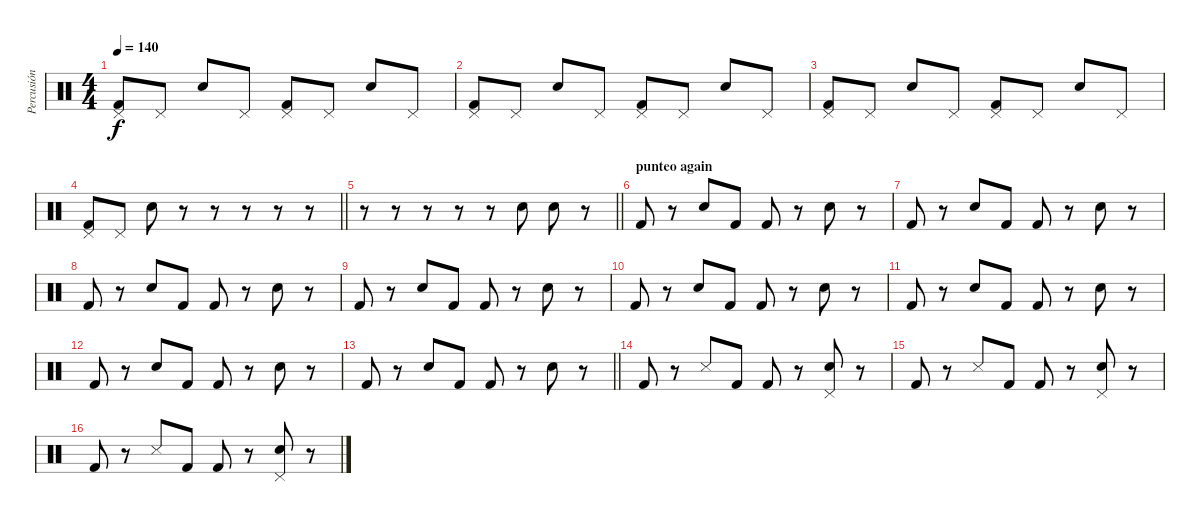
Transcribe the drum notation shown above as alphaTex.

\track ("Percusión" "Percusión") {instrument percussion}
\staff {score}
\articulation defaults
\ts (4 4)
\tempo 140
\clef neutral
\ks c
("Pedal Hi-Hat (hit)" "Kick (hit) 2").8{dy f} "Pedal Hi-Hat (hit)".8 "Snare (hit) 2".8 "Pedal Hi-Hat (hit)".8 ("Pedal Hi-Hat (hit)" "Kick (hit) 2").8 "Pedal Hi-Hat (hit)".8 "Snare (hit) 2".8 "Pedal Hi-Hat (hit)".8 |
("Pedal Hi-Hat (hit)" "Kick (hit) 2").8 "Pedal Hi-Hat (hit)".8 "Snare (hit) 2".8 "Pedal Hi-Hat (hit)".8 ("Pedal Hi-Hat (hit)" "Kick (hit) 2").8 "Pedal Hi-Hat (hit)".8 "Snare (hit) 2".8 "Pedal Hi-Hat (hit)".8 |
("Pedal Hi-Hat (hit)" "Kick (hit) 2").8 "Pedal Hi-Hat (hit)".8 "Snare (hit) 2".8 "Pedal Hi-Hat (hit)".8 ("Pedal Hi-Hat (hit)" "Kick (hit) 2").8 "Pedal Hi-Hat (hit)".8 "Snare (hit) 2".8 "Pedal Hi-Hat (hit)".8 |
\barLineRight lightlight
("Pedal Hi-Hat (hit)" "Kick (hit) 2").8 "Pedal Hi-Hat (hit)".8 "Snare (hit) 2".8 r.8 r.8 r.8 r.8 r.8 |
\barLineRight lightlight
r.8 r.8 r.8 r.8 r.8 "Snare (hit) 2".8 "Snare (hit) 2".8 r.8 |
\section ("" "punteo again")
"Kick (hit) 2".8 r.8 "Snare (hit) 2".8 "Kick (hit) 2".8 "Kick (hit) 2".8 r.8 "Snare (hit) 2".8 r.8 |
"Kick (hit) 2".8 r.8 "Snare (hit) 2".8 "Kick (hit) 2".8 "Kick (hit) 2".8 r.8 "Snare (hit) 2".8 r.8 |
"Kick (hit) 2".8 r.8 "Snare (hit) 2".8 "Kick (hit) 2".8 "Kick (hit) 2".8 r.8 "Snare (hit) 2".8 r.8 |
"Kick (hit) 2".8 r.8 "Snare (hit) 2".8 "Kick (hit) 2".8 "Kick (hit) 2".8 r.8 "Snare (hit) 2".8 r.8 |
"Kick (hit) 2".8 r.8 "Snare (hit) 2".8 "Kick (hit) 2".8 "Kick (hit) 2".8 r.8 "Snare (hit) 2".8 r.8 |
"Kick (hit) 2".8 r.8 "Snare (hit) 2".8 "Kick (hit) 2".8 "Kick (hit) 2".8 r.8 "Snare (hit) 2".8 r.8 |
"Kick (hit) 2".8 r.8 "Snare (hit) 2".8 "Kick (hit) 2".8 "Kick (hit) 2".8 r.8 "Snare (hit) 2".8 r.8 |
\barLineRight lightlight "Kick (hit) 2".8
r.8 "Snare (hit) 2".8 "Kick (hit) 2".8 "Kick (hit) 2".8 r.8 "Snare (hit) 2".8 r.8 |
"Kick (hit) 2".8 r.8 "Snare (side stick) 3".8 "Kick (hit) 2".8 "Kick (hit) 2".8 r.8 ("Pedal Hi-Hat (hit)" "Snare (hit) 2").8 r.8 |
"Kick (hit) 2".8 r.8 "Snare (side stick) 3".8 "Kick (hit) 2".8 "Kick (hit) 2".8 r.8 ("Pedal Hi-Hat (hit)" "Snare (hit) 2").8 r.8 |
"Kick (hit) 2".8 r.8 "Snare (side stick) 3".8 "Kick (hit) 2".8 "Kick (hit) 2".8 r.8 ("Pedal Hi-Hat (hit)" "Snare (hit) 2").8 r.8
